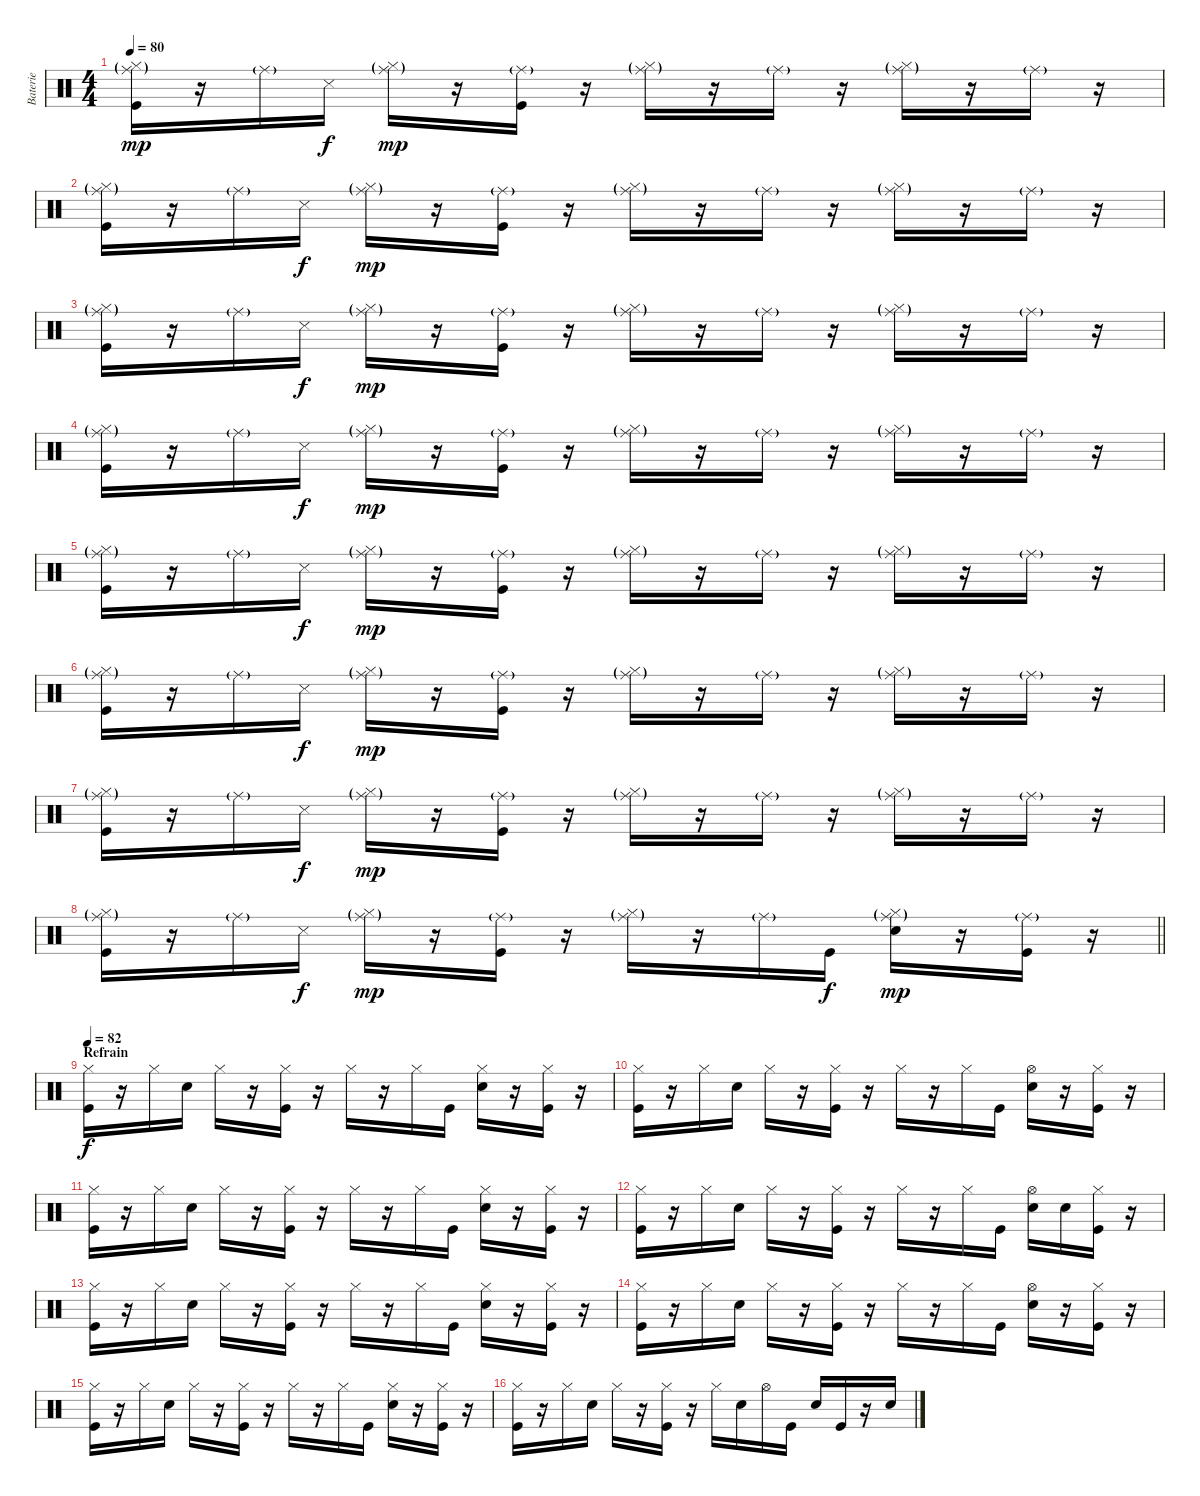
\track ("Baterie" "Baterie") {instrument percussion}
\staff {score}
\articulation defaults
\ts (4 4)
\tempo 80
\clef neutral
\ks c
("Ride (middle)"{g} "Hi-Hat (closed)"{g} "Kick (hit)").16{dy mp} r.16 "Ride (middle)"{g}.16 "Metronome (hit)".16{dy f} ("Ride (middle)"{g} "Hi-Hat (closed)"{g}).16{dy mp} r.16 ("Ride (middle)"{g} "Kick (hit)").16 r.16 ("Ride (middle)"{g} "Hi-Hat (closed)"{g}).16 r.16 "Ride (middle)"{g}.16 r.16 ("Ride (middle)"{g} "Hi-Hat (closed)"{g}).16 r.16 "Ride (middle)"{g}.16 r.16 |
("Ride (middle)"{g} "Hi-Hat (closed)"{g} "Kick (hit)").16 r.16 "Ride (middle)"{g}.16 "Metronome (hit)".16{dy f} ("Ride (middle)"{g} "Hi-Hat (closed)"{g}).16{dy mp} r.16 ("Ride (middle)"{g} "Kick (hit)").16 r.16 ("Ride (middle)"{g} "Hi-Hat (closed)"{g}).16 r.16 "Ride (middle)"{g}.16 r.16 ("Ride (middle)"{g} "Hi-Hat (closed)"{g}).16 r.16 "Ride (middle)"{g}.16 r.16 |
("Ride (middle)"{g} "Hi-Hat (closed)"{g} "Kick (hit)").16 r.16 "Ride (middle)"{g}.16 "Metronome (hit)".16{dy f} ("Ride (middle)"{g} "Hi-Hat (closed)"{g}).16{dy mp} r.16 ("Ride (middle)"{g} "Kick (hit)").16 r.16 ("Ride (middle)"{g} "Hi-Hat (closed)"{g}).16 r.16 "Ride (middle)"{g}.16 r.16 ("Ride (middle)"{g} "Hi-Hat (closed)"{g}).16 r.16 "Ride (middle)"{g}.16 r.16 |
("Ride (middle)"{g} "Hi-Hat (closed)"{g} "Kick (hit)").16 r.16 "Ride (middle)"{g}.16 "Metronome (hit)".16{dy f} ("Ride (middle)"{g} "Hi-Hat (closed)"{g}).16{dy mp} r.16 ("Ride (middle)"{g} "Kick (hit)").16 r.16 ("Ride (middle)"{g} "Hi-Hat (closed)"{g}).16 r.16 "Ride (middle)"{g}.16 r.16 ("Ride (middle)"{g} "Hi-Hat (closed)"{g}).16 r.16 "Ride (middle)"{g}.16 r.16 |
("Ride (middle)"{g} "Hi-Hat (closed)"{g} "Kick (hit)").16 r.16 "Ride (middle)"{g}.16 "Metronome (hit)".16{dy f} ("Ride (middle)"{g} "Hi-Hat (closed)"{g}).16{dy mp} r.16 ("Ride (middle)"{g} "Kick (hit)").16 r.16 ("Ride (middle)"{g} "Hi-Hat (closed)"{g}).16 r.16 "Ride (middle)"{g}.16 r.16 ("Ride (middle)"{g} "Hi-Hat (closed)"{g}).16 r.16 "Ride (middle)"{g}.16 r.16 |
("Ride (middle)"{g} "Hi-Hat (closed)"{g} "Kick (hit)").16 r.16 "Ride (middle)"{g}.16 "Metronome (hit)".16{dy f} ("Ride (middle)"{g} "Hi-Hat (closed)"{g}).16{dy mp} r.16 ("Ride (middle)"{g} "Kick (hit)").16 r.16 ("Ride (middle)"{g} "Hi-Hat (closed)"{g}).16 r.16 "Ride (middle)"{g}.16 r.16 ("Ride (middle)"{g} "Hi-Hat (closed)"{g}).16 r.16 "Ride (middle)"{g}.16 r.16 |
("Ride (middle)"{g} "Hi-Hat (closed)"{g} "Kick (hit)").16 r.16 "Ride (middle)"{g}.16 "Metronome (hit)".16{dy f} ("Ride (middle)"{g} "Hi-Hat (closed)"{g}).16{dy mp} r.16 ("Ride (middle)"{g} "Kick (hit)").16 r.16 ("Ride (middle)"{g} "Hi-Hat (closed)"{g}).16 r.16 "Ride (middle)"{g}.16 r.16 ("Ride (middle)"{g} "Hi-Hat (closed)"{g}).16 r.16 "Ride (middle)"{g}.16 r.16 |
\barLineRight lightlight
("Ride (middle)"{g} "Hi-Hat (closed)"{g} "Kick (hit)").16 r.16 "Ride (middle)"{g}.16 "Metronome (hit)".16{dy f} ("Ride (middle)"{g} "Hi-Hat (closed)"{g}).16{dy mp} r.16 ("Ride (middle)"{g} "Kick (hit)").16 r.16 ("Ride (middle)"{g} "Hi-Hat (closed)"{g}).16 r.16 "Ride (middle)"{g}.16 "Kick (hit)".16{dy f} ("Ride (middle)"{g} "Hi-Hat (closed)"{g} "Electric Snare (hit)").16{dy mp} r.16 ("Ride (middle)"{g} "Kick (hit)").16 r.16 |
\section ("" "Refrain")
\tempo 82
("Hi-Hat (closed)" "Kick (hit)").16{dy f} r.16 "Hi-Hat (closed)".16 "Electric Snare (hit)".16 "Hi-Hat (closed)".16 r.16 ("Hi-Hat (closed)" "Kick (hit)").16 r.16 "Hi-Hat (closed)".16 r.16 "Hi-Hat (closed)".16 "Kick (hit)".16 ("Hi-Hat (closed)" "Electric Snare (hit)").16 r.16 ("Hi-Hat (closed)" "Kick (hit)").16 r.16 |
("Hi-Hat (closed)" "Kick (hit)").16 r.16 "Hi-Hat (closed)".16 "Electric Snare (hit)".16 "Hi-Hat (closed)".16 r.16 ("Hi-Hat (closed)" "Kick (hit)").16 r.16 "Hi-Hat (closed)".16 r.16 "Hi-Hat (closed)".16 "Kick (hit)".16 ("Hi-Hat (open)" "Electric Snare (hit)").16 r.16 ("Hi-Hat (closed)" "Kick (hit)").16 r.16 |
("Hi-Hat (closed)" "Kick (hit)").16 r.16 "Hi-Hat (closed)".16 "Electric Snare (hit)".16 "Hi-Hat (closed)".16 r.16 ("Hi-Hat (closed)" "Kick (hit)").16 r.16 "Hi-Hat (closed)".16 r.16 "Hi-Hat (closed)".16 "Kick (hit)".16 ("Hi-Hat (closed)" "Electric Snare (hit)").16 r.16 ("Hi-Hat (closed)" "Kick (hit)").16 r.16 |
("Hi-Hat (closed)" "Kick (hit)").16 r.16 "Hi-Hat (closed)".16 "Electric Snare (hit)".16 "Hi-Hat (closed)".16 r.16 ("Hi-Hat (closed)" "Kick (hit)").16 r.16 "Hi-Hat (closed)".16 r.16 "Hi-Hat (closed)".16 "Kick (hit)".16 ("Hi-Hat (open)" "Electric Snare (hit)").16 "Electric Snare (hit)".16 ("Hi-Hat (closed)" "Kick (hit)").16 r.16 |
("Hi-Hat (closed)" "Kick (hit)").16 r.16 "Hi-Hat (closed)".16 "Electric Snare (hit)".16 "Hi-Hat (closed)".16 r.16 ("Hi-Hat (closed)" "Kick (hit)").16 r.16 "Hi-Hat (closed)".16 r.16 "Hi-Hat (closed)".16 "Kick (hit)".16 ("Hi-Hat (closed)" "Electric Snare (hit)").16 r.16 ("Hi-Hat (closed)" "Kick (hit)").16 r.16 |
("Hi-Hat (closed)" "Kick (hit)").16 r.16 "Hi-Hat (closed)".16 "Electric Snare (hit)".16 "Hi-Hat (closed)".16 r.16 ("Hi-Hat (closed)" "Kick (hit)").16 r.16 "Hi-Hat (closed)".16 r.16 "Hi-Hat (closed)".16 "Kick (hit)".16 ("Hi-Hat (open)" "Electric Snare (hit)").16 r.16 ("Hi-Hat (closed)" "Kick (hit)").16 r.16 |
("Hi-Hat (closed)" "Kick (hit)").16 r.16 "Hi-Hat (closed)".16 "Electric Snare (hit)".16 "Hi-Hat (closed)".16 r.16 ("Hi-Hat (closed)" "Kick (hit)").16 r.16 "Hi-Hat (closed)".16 r.16 "Hi-Hat (closed)".16 "Kick (hit)".16 ("Hi-Hat (closed)" "Electric Snare (hit)").16 r.16 ("Hi-Hat (closed)" "Kick (hit)").16 r.16 |
("Hi-Hat (closed)" "Kick (hit)").16 r.16 "Hi-Hat (closed)".16 "Electric Snare (hit)".16 "Hi-Hat (closed)".16 r.16 ("Hi-Hat (closed)" "Kick (hit)").16 r.16 "Hi-Hat (closed)".16 "Electric Snare (hit)".16 "Hi-Hat (open)".16 "Kick (hit)".16 "Electric Snare (hit)".16 "Kick (hit)".16 r.16 "Electric Snare (hit)".16
